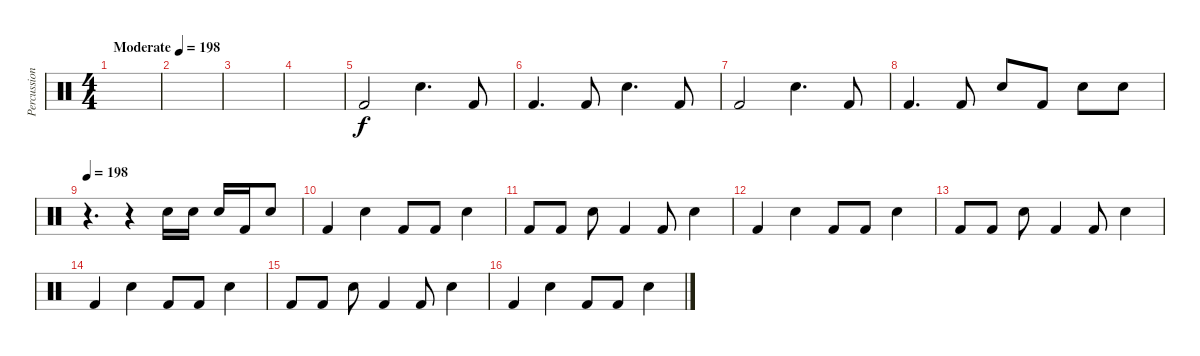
\track ("Percussion" "Percussion") {instrument percussion}
\staff {score}
\articulation defaults
\ts (4 4)
\tempo (198 "Moderate")
\tempo 132
\tempo (198 "Moderate")
\clef neutral
\ks c
|
|
|
|
"Kick (hit) 2".2 "Electric Snare (hit)".4{d} "Kick (hit) 2".8 |
"Kick (hit) 2".4{d} "Kick (hit) 2".8 "Electric Snare (hit)".4{d} "Kick (hit) 2".8 |
"Kick (hit) 2".2 "Electric Snare (hit)".4{d} "Kick (hit) 2".8 |
"Kick (hit) 2".4{d} "Kick (hit) 2".8 "Electric Snare (hit)".8 "Kick (hit) 2".8 "Electric Snare (hit)".8 "Electric Snare (hit)".8 |
\tempo 198
r.4{d} r.4 "Electric Snare (hit)".16 "Electric Snare (hit)".16 "Electric Snare (hit)".16 "Kick (hit) 2".16 "Electric Snare (hit)".8 |
"Kick (hit) 2".4 "Electric Snare (hit)".4 "Kick (hit) 2".8 "Kick (hit) 2".8 "Electric Snare (hit)".4 |
"Kick (hit) 2".8 "Kick (hit) 2".8 "Electric Snare (hit)".8 "Kick (hit) 2".4 "Kick (hit) 2".8 "Electric Snare (hit)".4 |
"Kick (hit) 2".4 "Electric Snare (hit)".4 "Kick (hit) 2".8 "Kick (hit) 2".8 "Electric Snare (hit)".4 |
"Kick (hit) 2".8 "Kick (hit) 2".8 "Electric Snare (hit)".8 "Kick (hit) 2".4 "Kick (hit) 2".8 "Electric Snare (hit)".4 |
"Kick (hit) 2".4 "Electric Snare (hit)".4 "Kick (hit) 2".8 "Kick (hit) 2".8 "Electric Snare (hit)".4 |
"Kick (hit) 2".8 "Kick (hit) 2".8 "Electric Snare (hit)".8 "Kick (hit) 2".4 "Kick (hit) 2".8 "Electric Snare (hit)".4 |
"Kick (hit) 2".4 "Electric Snare (hit)".4 "Kick (hit) 2".8 "Kick (hit) 2".8 "Electric Snare (hit)".4
